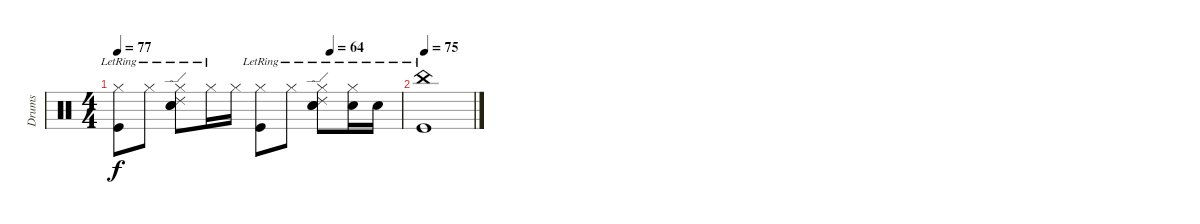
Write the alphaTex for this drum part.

\track ("Drums" "Drums") {instrument percussion}
\staff {score}
\articulation defaults
\ts (4 4)
\tempo 77
\tempo (64 0.75)
\clef neutral
\ks c
("Hi-Hat (closed)"{lr} "Kick (hit)"{lr}).8{dy f} "Hi-Hat (closed)"{lr}.8 ("Hi-Hat (closed)"{lr} "Snare (hit) 2"{lr} "Ride (edge) 2"{lr} "Electric Snare (hit)"{lr}).8 "Hi-Hat (closed)"{lr}.16 "Hi-Hat (closed)".16 ("Hi-Hat (closed)"{lr} "Kick (hit)"{lr}).8 "Hi-Hat (closed)"{lr}.8 ("Hi-Hat (closed)"{lr} "Snare (hit) 2"{lr} "Ride (edge) 2"{lr} "Electric Snare (hit)"{lr}).8 ("Hi-Hat (closed)"{lr} "Snare (hit) 2"{lr}).16 "Snare (hit) 2"{lr}.16 |
\tempo 75
("China (hit)"{lr} "Kick (hit)"{lr}).1
